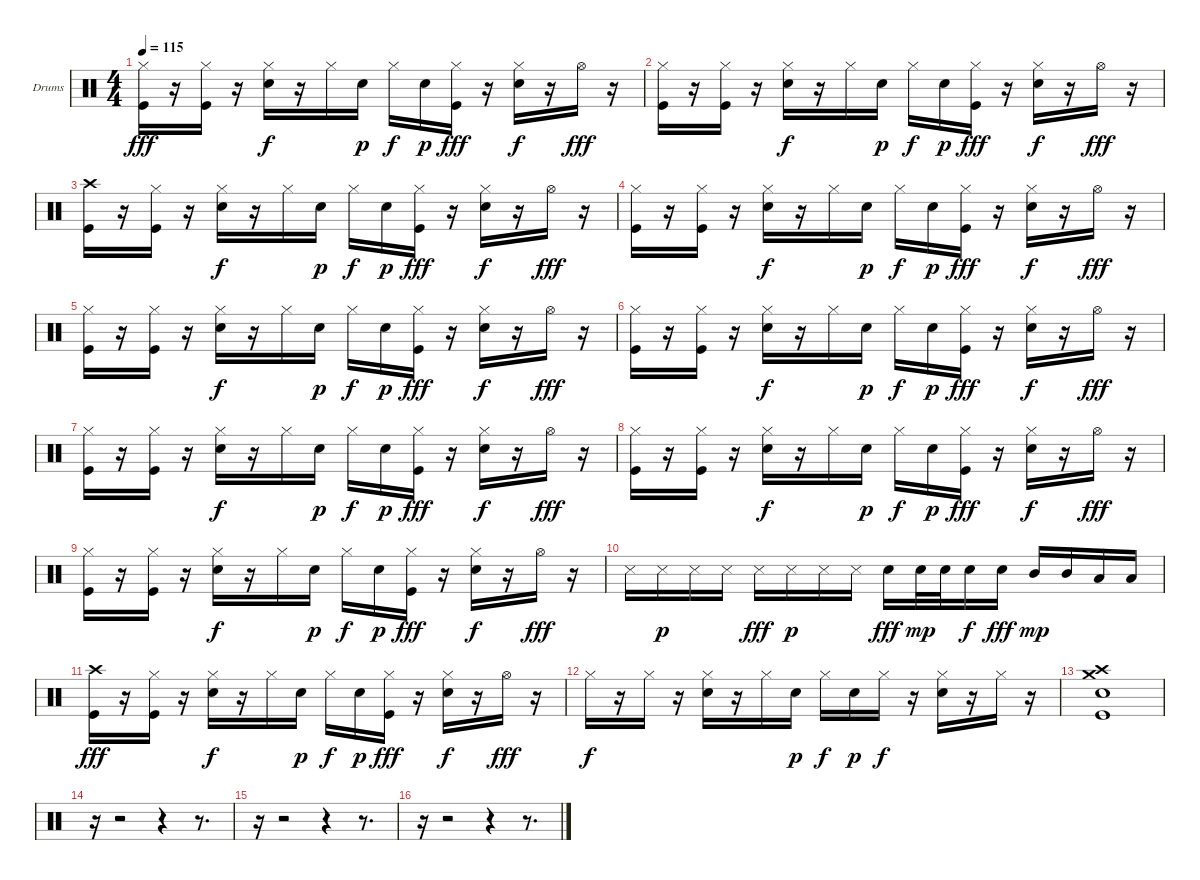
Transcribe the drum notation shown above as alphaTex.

\bracketExtendMode groupsimilarinstruments
\firstSystemTrackNameOrientation horizontal
\otherSystemsTrackNameOrientation horizontal
\track ("Drumkit" "Drums") {instrument percussion}
\staff {score}
\articulation defaults
\ts (4 4)
\tempo 115
\clef neutral
\ks c
("Kick (hit)" "Hi-Hat (closed)").16{dy fff} r.16 ("Kick (hit)" "Hi-Hat (closed)").16 r.16 ("Snare (hit) 2" "Hi-Hat (closed)").16{dy f} r.16 "Hi-Hat (closed)".16 "Snare (hit) 2".16{dy p} "Hi-Hat (closed)".16{dy f} "Snare (hit) 2".16{dy p} ("Kick (hit)" "Hi-Hat (closed)").16{dy fff} r.16 ("Snare (hit) 2" "Hi-Hat (closed)").16{dy f} r.16 "Hi-Hat (open)".16{dy fff} r.16 |
("Kick (hit)" "Hi-Hat (closed)").16 r.16 ("Kick (hit)" "Hi-Hat (closed)").16 r.16 ("Snare (hit) 2" "Hi-Hat (closed)").16{dy f} r.16 "Hi-Hat (closed)".16 "Snare (hit) 2".16{dy p} "Hi-Hat (closed)".16{dy f} "Snare (hit) 2".16{dy p} ("Kick (hit)" "Hi-Hat (closed)").16{dy fff} r.16 ("Snare (hit) 2" "Hi-Hat (closed)").16{dy f} r.16 "Hi-Hat (open)".16{dy fff} r.16 |
("Kick (hit)" "Crash high (hit)").16 r.16 ("Kick (hit)" "Hi-Hat (closed)").16 r.16 ("Snare (hit) 2" "Hi-Hat (closed)").16{dy f} r.16 "Hi-Hat (closed)".16 "Snare (hit) 2".16{dy p} "Hi-Hat (closed)".16{dy f} "Snare (hit) 2".16{dy p} ("Kick (hit)" "Hi-Hat (closed)").16{dy fff} r.16 ("Snare (hit) 2" "Hi-Hat (closed)").16{dy f} r.16 "Hi-Hat (open)".16{dy fff} r.16 |
("Kick (hit)" "Hi-Hat (closed)").16 r.16 ("Kick (hit)" "Hi-Hat (closed)").16 r.16 ("Snare (hit) 2" "Hi-Hat (closed)").16{dy f} r.16 "Hi-Hat (closed)".16 "Snare (hit) 2".16{dy p} "Hi-Hat (closed)".16{dy f} "Snare (hit) 2".16{dy p} ("Kick (hit)" "Hi-Hat (closed)").16{dy fff} r.16 ("Snare (hit) 2" "Hi-Hat (closed)").16{dy f} r.16 "Hi-Hat (open)".16{dy fff} r.16 |
("Kick (hit)" "Hi-Hat (closed)").16 r.16 ("Kick (hit)" "Hi-Hat (closed)").16 r.16 ("Snare (hit) 2" "Hi-Hat (closed)").16{dy f} r.16 "Hi-Hat (closed)".16 "Snare (hit) 2".16{dy p} "Hi-Hat (closed)".16{dy f} "Snare (hit) 2".16{dy p} ("Kick (hit)" "Hi-Hat (closed)").16{dy fff} r.16 ("Snare (hit) 2" "Hi-Hat (closed)").16{dy f} r.16 "Hi-Hat (open)".16{dy fff} r.16 |
("Kick (hit)" "Hi-Hat (closed)").16 r.16 ("Kick (hit)" "Hi-Hat (closed)").16 r.16 ("Snare (hit) 2" "Hi-Hat (closed)").16{dy f} r.16 "Hi-Hat (closed)".16 "Snare (hit) 2".16{dy p} "Hi-Hat (closed)".16{dy f} "Snare (hit) 2".16{dy p} ("Kick (hit)" "Hi-Hat (closed)").16{dy fff} r.16 ("Snare (hit) 2" "Hi-Hat (closed)").16{dy f} r.16 "Hi-Hat (open)".16{dy fff} r.16 |
("Kick (hit)" "Hi-Hat (closed)").16 r.16 ("Kick (hit)" "Hi-Hat (closed)").16 r.16 ("Snare (hit) 2" "Hi-Hat (closed)").16{dy f} r.16 "Hi-Hat (closed)".16 "Snare (hit) 2".16{dy p} "Hi-Hat (closed)".16{dy f} "Snare (hit) 2".16{dy p} ("Kick (hit)" "Hi-Hat (closed)").16{dy fff} r.16 ("Snare (hit) 2" "Hi-Hat (closed)").16{dy f} r.16 "Hi-Hat (open)".16{dy fff} r.16 |
("Kick (hit)" "Hi-Hat (closed)").16 r.16 ("Kick (hit)" "Hi-Hat (closed)").16 r.16 ("Snare (hit) 2" "Hi-Hat (closed)").16{dy f} r.16 "Hi-Hat (closed)".16 "Snare (hit) 2".16{dy p} "Hi-Hat (closed)".16{dy f} "Snare (hit) 2".16{dy p} ("Kick (hit)" "Hi-Hat (closed)").16{dy fff} r.16 ("Snare (hit) 2" "Hi-Hat (closed)").16{dy f} r.16 "Hi-Hat (open)".16{dy fff} r.16 |
("Kick (hit)" "Hi-Hat (closed)").16 r.16 ("Kick (hit)" "Hi-Hat (closed)").16 r.16 ("Snare (hit) 2" "Hi-Hat (closed)").16{dy f} r.16 "Hi-Hat (closed)".16 "Snare (hit) 2".16{dy p} "Hi-Hat (closed)".16{dy f} "Snare (hit) 2".16{dy p} ("Kick (hit)" "Hi-Hat (closed)").16{dy fff} r.16 ("Snare (hit) 2" "Hi-Hat (closed)").16{dy f} r.16 "Hi-Hat (open)".16{dy fff} r.16 |
"Snare (side stick) 3".16 "Snare (side stick) 3".16{dy p} "Snare (side stick) 3".16 "Snare (side stick) 3".16 "Snare (side stick) 3".16{dy fff} "Snare (side stick) 3".16{dy p} "Snare (side stick) 3".16 "Snare (side stick) 3".16 "Snare (hit) 2".16{dy fff} "Snare (hit) 2".32{dy mp} "Snare (hit) 2".32 "Snare (hit) 2".16{dy f} "Snare (hit) 2".16{dy fff} "Mid Tom (hit)".16{dy mp} "Mid Tom (hit)".16 "Low Tom (hit)".16 "Low Tom (hit)".16 |
("Kick (hit)" "Crash high (hit)").16{dy fff} r.16 ("Kick (hit)" "Hi-Hat (closed)").16 r.16 ("Snare (hit) 2" "Hi-Hat (closed)").16{dy f} r.16 "Hi-Hat (closed)".16 "Snare (hit) 2".16{dy p} "Hi-Hat (closed)".16{dy f} "Snare (hit) 2".16{dy p} ("Kick (hit)" "Hi-Hat (closed)").16{dy fff} r.16 ("Snare (hit) 2" "Hi-Hat (closed)").16{dy f} r.16 "Hi-Hat (open)".16{dy fff} r.16 |
"Hi-Hat (closed)".16{dy f} r.16 "Hi-Hat (closed)".16 r.16 ("Snare (hit) 2" "Hi-Hat (closed)").16 r.16 "Hi-Hat (closed)".16 "Snare (hit) 2".16{dy p} "Hi-Hat (closed)".16{dy f} "Snare (hit) 2".16{dy p} "Hi-Hat (closed)".16{dy f} r.16 ("Snare (hit) 2" "Hi-Hat (closed)").16 r.16 "Hi-Hat (closed)".16 r.16 |
("Kick (hit)" "Snare (hit) 2" "Crash medium (hit)" "Crash high (hit)").1 |
r.16 r.2 r.4 r.8{d} |
r.16 r.2 r.4 r.8{d} |
r.16 r.2 r.4 r.8{d}
